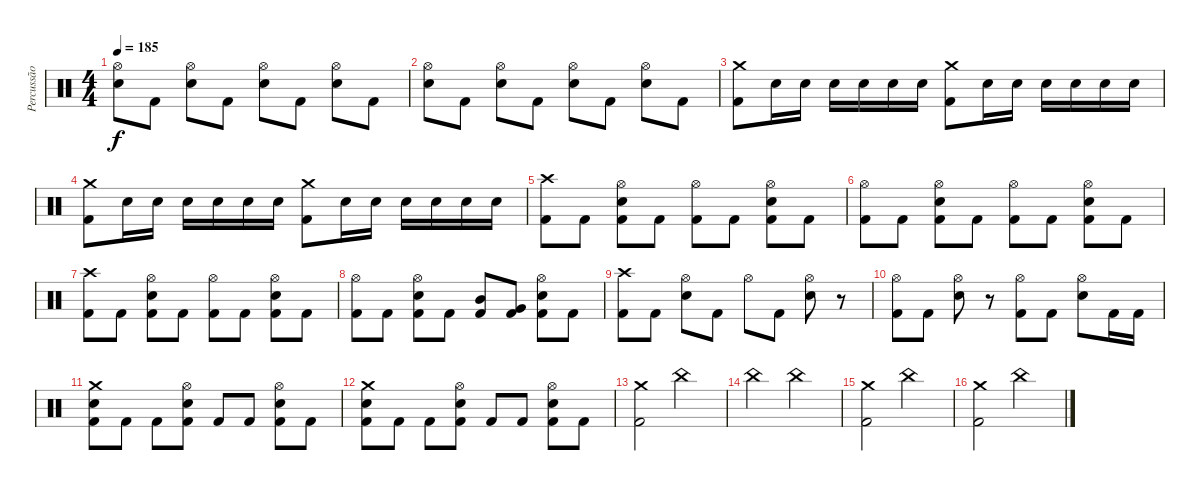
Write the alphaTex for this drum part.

\track ("Percussão" "Percussão") {instrument percussion}
\staff {score}
\articulation defaults
\ts (4 4)
\tempo 185
\clef neutral
\ks c
("Hi-Hat (open)" "Snare (hit) 2").8{dy f} "Kick (hit) 2".8 ("Hi-Hat (open)" "Snare (hit) 2").8 "Kick (hit) 2".8 ("Hi-Hat (open)" "Snare (hit) 2").8 "Kick (hit) 2".8 ("Hi-Hat (open)" "Snare (hit) 2").8 "Kick (hit) 2".8 |
("Hi-Hat (open)" "Snare (hit) 2").8 "Kick (hit) 2".8 ("Hi-Hat (open)" "Snare (hit) 2").8 "Kick (hit) 2".8 ("Hi-Hat (open)" "Snare (hit) 2").8 "Kick (hit) 2".8 ("Hi-Hat (open)" "Snare (hit) 2").8 "Kick (hit) 2".8 |
("Crash medium (hit)" "Kick (hit) 2").8 "Snare (hit) 2".16 "Snare (hit) 2".16 "Snare (hit) 2".16 "Snare (hit) 2".16 "Snare (hit) 2".16 "Snare (hit) 2".16 ("Crash medium (hit)" "Kick (hit) 2").8 "Snare (hit) 2".16 "Snare (hit) 2".16 "Snare (hit) 2".16 "Snare (hit) 2".16 "Snare (hit) 2".16 "Snare (hit) 2".16 |
("Crash medium (hit)" "Kick (hit) 2").8 "Snare (hit) 2".16 "Snare (hit) 2".16 "Snare (hit) 2".16 "Snare (hit) 2".16 "Snare (hit) 2".16 "Snare (hit) 2".16 ("Crash medium (hit)" "Kick (hit) 2").8 "Snare (hit) 2".16 "Snare (hit) 2".16 "Snare (hit) 2".16 "Snare (hit) 2".16 "Snare (hit) 2".16 "Snare (hit) 2".16 |
("Crash high (hit)" "Kick (hit) 2").8 "Kick (hit) 2".8 ("Hi-Hat (open)" "Snare (hit) 2" "Kick (hit) 2").8 "Kick (hit) 2".8 ("Hi-Hat (open)" "Kick (hit) 2").8 "Kick (hit) 2".8 ("Hi-Hat (open)" "Snare (hit) 2" "Kick (hit) 2").8 "Kick (hit) 2".8 |
("Hi-Hat (open)" "Kick (hit) 2").8 "Kick (hit) 2".8 ("Hi-Hat (open)" "Snare (hit) 2" "Kick (hit) 2").8 "Kick (hit) 2".8 ("Hi-Hat (open)" "Kick (hit) 2").8 "Kick (hit) 2".8 ("Hi-Hat (open)" "Snare (hit) 2" "Kick (hit) 2").8 "Kick (hit) 2".8 |
("Crash high (hit)" "Kick (hit) 2").8 "Kick (hit) 2".8 ("Hi-Hat (open)" "Snare (hit) 2" "Kick (hit) 2").8 "Kick (hit) 2".8 ("Hi-Hat (open)" "Kick (hit) 2").8 "Kick (hit) 2".8 ("Hi-Hat (open)" "Snare (hit) 2" "Kick (hit) 2").8 "Kick (hit) 2".8 |
("Hi-Hat (open)" "Kick (hit) 2").8 "Kick (hit) 2".8 ("Hi-Hat (open)" "Snare (hit) 2" "Kick (hit) 2").8 "Kick (hit) 2".8 ("Mid Tom (hit)" "Kick (hit) 2").8 ("Very Low Tom (hit)" "Kick (hit) 2").8 ("Hi-Hat (open)" "Snare (hit) 2" "Kick (hit) 2").8 "Kick (hit) 2".8 |
("Crash high (hit)" "Kick (hit) 2").8 "Kick (hit) 2".8 ("Hi-Hat (open)" "Snare (hit) 2").8 "Kick (hit) 2".8 "Hi-Hat (open)".8 "Kick (hit) 2".8 ("Hi-Hat (open)" "Snare (hit) 2").8 r.8 |
("Hi-Hat (open)" "Kick (hit) 2").8 "Kick (hit) 2".8 ("Hi-Hat (open)" "Snare (hit) 2").8 r.8 ("Hi-Hat (open)" "Kick (hit) 2").8 "Kick (hit) 2".8 ("Hi-Hat (open)" "Snare (hit) 2").8 "Kick (hit) 2".16 "Kick (hit) 2".16 |
("Crash medium (hit)" "Snare (hit) 2" "Kick (hit) 2").8 "Kick (hit) 2".8 "Kick (hit) 2".8 ("Hi-Hat (open)" "Snare (hit) 2" "Kick (hit) 2").8 "Kick (hit) 2".8 "Kick (hit) 2".8 ("Hi-Hat (open)" "Snare (hit) 2" "Kick (hit) 2").8 "Kick (hit) 2".8 |
("Crash medium (hit)" "Snare (hit) 2" "Kick (hit) 2").8 "Kick (hit) 2".8 "Kick (hit) 2".8 ("Hi-Hat (open)" "Snare (hit) 2" "Kick (hit) 2").8 "Kick (hit) 2".8 "Kick (hit) 2".8 ("Hi-Hat (open)" "Snare (hit) 2" "Kick (hit) 2").8 "Kick (hit) 2".8 |
("Crash medium (hit)" "Kick (hit) 2").2 "China (hit)".2 |
"China (hit)".2 "China (hit)".2 |
("Crash medium (hit)" "Kick (hit) 2").2 "China (hit)".2 |
("Crash medium (hit)" "Kick (hit) 2").2 "China (hit)".2
